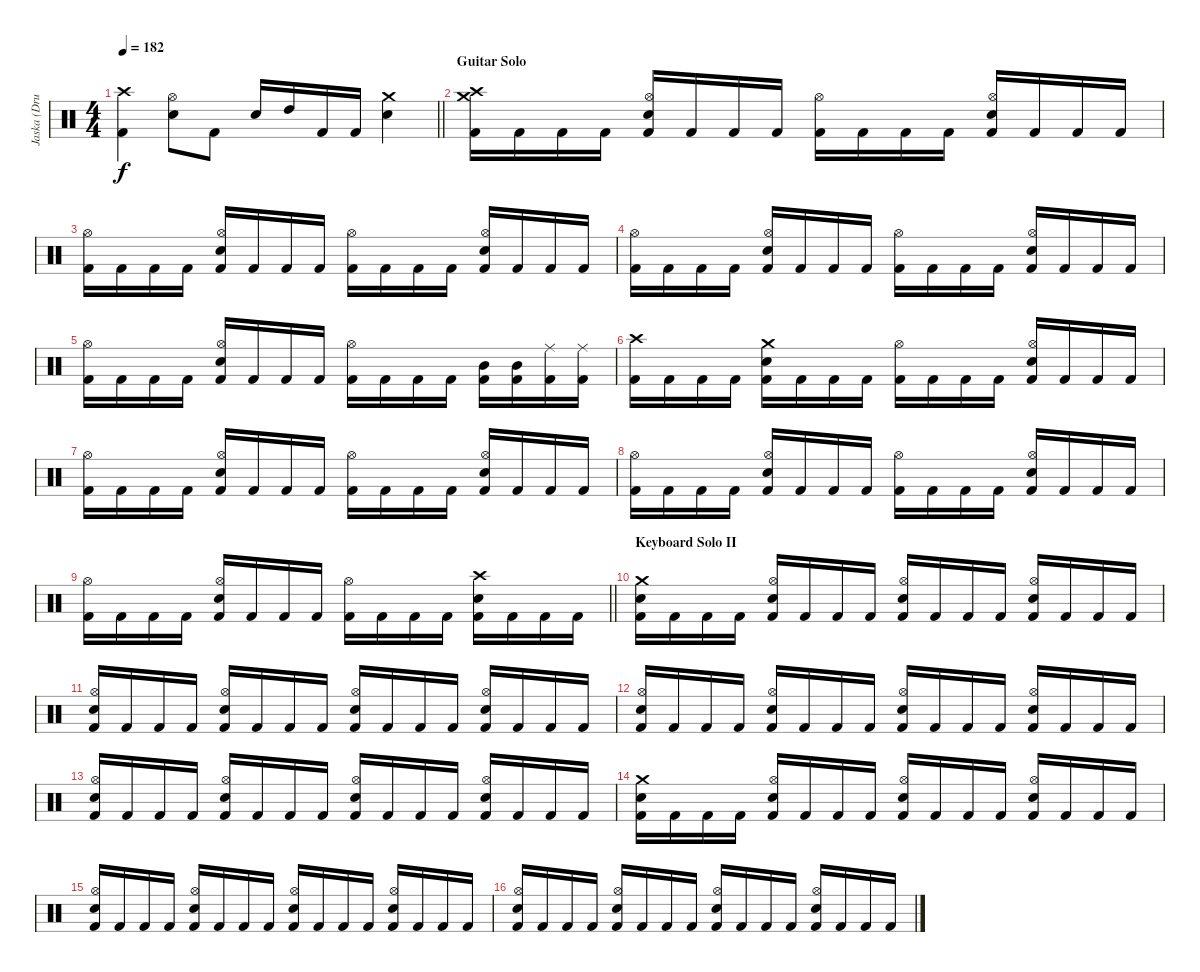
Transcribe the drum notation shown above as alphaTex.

\track ("Jaska (Drums)" "Jaska (Dru") {instrument percussion}
\staff {score}
\articulation defaults
\ts (4 4)
\tempo 182
\clef neutral
\barLineRight lightlight
\ks c
("Crash high (hit)" "Kick (hit) 2").4{dy f} ("Hi-Hat (open)" "Electric Snare (hit)").8 "Kick (hit) 2".8 "Electric Snare (hit)".16 "High Tom (hit)".16 "Kick (hit) 2".16 "Kick (hit) 2".16 ("Crash medium (hit)" "Electric Snare (hit)").4 |
\section ("" "Guitar Solo")
("Crash medium (hit)" "Crash high (hit)" "Kick (hit) 2").16 "Kick (hit) 2".16 "Kick (hit) 2".16 "Kick (hit) 2".16 ("Hi-Hat (open)" "Electric Snare (hit)" "Kick (hit) 2").16 "Kick (hit) 2".16 "Kick (hit) 2".16 "Kick (hit) 2".16 ("Hi-Hat (open)" "Kick (hit) 2").16 "Kick (hit) 2".16 "Kick (hit) 2".16 "Kick (hit) 2".16 ("Hi-Hat (open)" "Electric Snare (hit)" "Kick (hit) 2").16 "Kick (hit) 2".16 "Kick (hit) 2".16 "Kick (hit) 2".16 |
("Hi-Hat (open)" "Kick (hit) 2").16 "Kick (hit) 2".16 "Kick (hit) 2".16 "Kick (hit) 2".16 ("Hi-Hat (open)" "Electric Snare (hit)" "Kick (hit) 2").16 "Kick (hit) 2".16 "Kick (hit) 2".16 "Kick (hit) 2".16 ("Hi-Hat (open)" "Kick (hit) 2").16 "Kick (hit) 2".16 "Kick (hit) 2".16 "Kick (hit) 2".16 ("Hi-Hat (open)" "Electric Snare (hit)" "Kick (hit) 2").16 "Kick (hit) 2".16 "Kick (hit) 2".16 "Kick (hit) 2".16 |
("Hi-Hat (open)" "Kick (hit) 2").16 "Kick (hit) 2".16 "Kick (hit) 2".16 "Kick (hit) 2".16 ("Hi-Hat (open)" "Electric Snare (hit)" "Kick (hit) 2").16 "Kick (hit) 2".16 "Kick (hit) 2".16 "Kick (hit) 2".16 ("Hi-Hat (open)" "Kick (hit) 2").16 "Kick (hit) 2".16 "Kick (hit) 2".16 "Kick (hit) 2".16 ("Hi-Hat (open)" "Electric Snare (hit)" "Kick (hit) 2").16 "Kick (hit) 2".16 "Kick (hit) 2".16 "Kick (hit) 2".16 |
("Hi-Hat (open)" "Kick (hit) 2").16 "Kick (hit) 2".16 "Kick (hit) 2".16 "Kick (hit) 2".16 ("Hi-Hat (open)" "Electric Snare (hit)" "Kick (hit) 2").16 "Kick (hit) 2".16 "Kick (hit) 2".16 "Kick (hit) 2".16 ("Hi-Hat (open)" "Kick (hit) 2").16 "Kick (hit) 2".16 "Kick (hit) 2".16 "Kick (hit) 2".16 ("Mid Tom (hit)" "Kick (hit) 2").16 ("Mid Tom (hit)" "Kick (hit) 2").16 ("Ride (middle)" "Kick (hit) 2").16 ("Ride (middle)" "Kick (hit) 2").16 |
("Crash high (hit)" "Kick (hit) 2").16 "Kick (hit) 2".16 "Kick (hit) 2".16 "Kick (hit) 2".16 ("Crash medium (hit)" "Electric Snare (hit)" "Kick (hit) 2").16 "Kick (hit) 2".16 "Kick (hit) 2".16 "Kick (hit) 2".16 ("Hi-Hat (open)" "Kick (hit) 2").16 "Kick (hit) 2".16 "Kick (hit) 2".16 "Kick (hit) 2".16 ("Hi-Hat (open)" "Electric Snare (hit)" "Kick (hit) 2").16 "Kick (hit) 2".16 "Kick (hit) 2".16 "Kick (hit) 2".16 |
("Hi-Hat (open)" "Kick (hit) 2").16 "Kick (hit) 2".16 "Kick (hit) 2".16 "Kick (hit) 2".16 ("Hi-Hat (open)" "Electric Snare (hit)" "Kick (hit) 2").16 "Kick (hit) 2".16 "Kick (hit) 2".16 "Kick (hit) 2".16 ("Hi-Hat (open)" "Kick (hit) 2").16 "Kick (hit) 2".16 "Kick (hit) 2".16 "Kick (hit) 2".16 ("Hi-Hat (open)" "Electric Snare (hit)" "Kick (hit) 2").16 "Kick (hit) 2".16 "Kick (hit) 2".16 "Kick (hit) 2".16 |
("Hi-Hat (open)" "Kick (hit) 2").16 "Kick (hit) 2".16 "Kick (hit) 2".16 "Kick (hit) 2".16 ("Hi-Hat (open)" "Electric Snare (hit)" "Kick (hit) 2").16 "Kick (hit) 2".16 "Kick (hit) 2".16 "Kick (hit) 2".16 ("Hi-Hat (open)" "Kick (hit) 2").16 "Kick (hit) 2".16 "Kick (hit) 2".16 "Kick (hit) 2".16 ("Hi-Hat (open)" "Electric Snare (hit)" "Kick (hit) 2").16 "Kick (hit) 2".16 "Kick (hit) 2".16 "Kick (hit) 2".16 |
\barLineRight lightlight
("Hi-Hat (open)" "Kick (hit) 2").16 "Kick (hit) 2".16 "Kick (hit) 2".16 "Kick (hit) 2".16 ("Hi-Hat (open)" "Electric Snare (hit)" "Kick (hit) 2").16 "Kick (hit) 2".16 "Kick (hit) 2".16 "Kick (hit) 2".16 ("Hi-Hat (open)" "Kick (hit) 2").16 "Kick (hit) 2".16 "Kick (hit) 2".16 "Kick (hit) 2".16 ("Crash high (hit)" "Electric Snare (hit)" "Kick (hit) 2").16 "Kick (hit) 2".16 "Kick (hit) 2".16 "Kick (hit) 2".16 |
\section ("" "Keyboard Solo II")
("Crash medium (hit)" "Electric Snare (hit)" "Kick (hit) 2").16 "Kick (hit) 2".16 "Kick (hit) 2".16 "Kick (hit) 2".16 ("Hi-Hat (open)" "Electric Snare (hit)" "Kick (hit) 2").16 "Kick (hit) 2".16 "Kick (hit) 2".16 "Kick (hit) 2".16 ("Hi-Hat (open)" "Electric Snare (hit)" "Kick (hit) 2").16 "Kick (hit) 2".16 "Kick (hit) 2".16 "Kick (hit) 2".16 ("Hi-Hat (open)" "Electric Snare (hit)" "Kick (hit) 2").16 "Kick (hit) 2".16 "Kick (hit) 2".16 "Kick (hit) 2".16 |
("Hi-Hat (open)" "Electric Snare (hit)" "Kick (hit) 2").16 "Kick (hit) 2".16 "Kick (hit) 2".16 "Kick (hit) 2".16 ("Hi-Hat (open)" "Electric Snare (hit)" "Kick (hit) 2").16 "Kick (hit) 2".16 "Kick (hit) 2".16 "Kick (hit) 2".16 ("Hi-Hat (open)" "Electric Snare (hit)" "Kick (hit) 2").16 "Kick (hit) 2".16 "Kick (hit) 2".16 "Kick (hit) 2".16 ("Hi-Hat (open)" "Electric Snare (hit)" "Kick (hit) 2").16 "Kick (hit) 2".16 "Kick (hit) 2".16 "Kick (hit) 2".16 |
("Hi-Hat (open)" "Electric Snare (hit)" "Kick (hit) 2").16 "Kick (hit) 2".16 "Kick (hit) 2".16 "Kick (hit) 2".16 ("Hi-Hat (open)" "Electric Snare (hit)" "Kick (hit) 2").16 "Kick (hit) 2".16 "Kick (hit) 2".16 "Kick (hit) 2".16 ("Hi-Hat (open)" "Electric Snare (hit)" "Kick (hit) 2").16 "Kick (hit) 2".16 "Kick (hit) 2".16 "Kick (hit) 2".16 ("Hi-Hat (open)" "Electric Snare (hit)" "Kick (hit) 2").16 "Kick (hit) 2".16 "Kick (hit) 2".16 "Kick (hit) 2".16 |
("Hi-Hat (open)" "Electric Snare (hit)" "Kick (hit) 2").16 "Kick (hit) 2".16 "Kick (hit) 2".16 "Kick (hit) 2".16 ("Hi-Hat (open)" "Electric Snare (hit)" "Kick (hit) 2").16 "Kick (hit) 2".16 "Kick (hit) 2".16 "Kick (hit) 2".16 ("Hi-Hat (open)" "Electric Snare (hit)" "Kick (hit) 2").16 "Kick (hit) 2".16 "Kick (hit) 2".16 "Kick (hit) 2".16 ("Hi-Hat (open)" "Electric Snare (hit)" "Kick (hit) 2").16 "Kick (hit) 2".16 "Kick (hit) 2".16 "Kick (hit) 2".16 |
("Crash medium (hit)" "Electric Snare (hit)" "Kick (hit) 2").16 "Kick (hit) 2".16 "Kick (hit) 2".16 "Kick (hit) 2".16 ("Hi-Hat (open)" "Electric Snare (hit)" "Kick (hit) 2").16 "Kick (hit) 2".16 "Kick (hit) 2".16 "Kick (hit) 2".16 ("Hi-Hat (open)" "Electric Snare (hit)" "Kick (hit) 2").16 "Kick (hit) 2".16 "Kick (hit) 2".16 "Kick (hit) 2".16 ("Hi-Hat (open)" "Electric Snare (hit)" "Kick (hit) 2").16 "Kick (hit) 2".16 "Kick (hit) 2".16 "Kick (hit) 2".16 |
("Hi-Hat (open)" "Electric Snare (hit)" "Kick (hit) 2").16 "Kick (hit) 2".16 "Kick (hit) 2".16 "Kick (hit) 2".16 ("Hi-Hat (open)" "Electric Snare (hit)" "Kick (hit) 2").16 "Kick (hit) 2".16 "Kick (hit) 2".16 "Kick (hit) 2".16 ("Hi-Hat (open)" "Electric Snare (hit)" "Kick (hit) 2").16 "Kick (hit) 2".16 "Kick (hit) 2".16 "Kick (hit) 2".16 ("Hi-Hat (open)" "Electric Snare (hit)" "Kick (hit) 2").16 "Kick (hit) 2".16 "Kick (hit) 2".16 "Kick (hit) 2".16 |
("Hi-Hat (open)" "Electric Snare (hit)" "Kick (hit) 2").16 "Kick (hit) 2".16 "Kick (hit) 2".16 "Kick (hit) 2".16 ("Hi-Hat (open)" "Electric Snare (hit)" "Kick (hit) 2").16 "Kick (hit) 2".16 "Kick (hit) 2".16 "Kick (hit) 2".16 ("Hi-Hat (open)" "Electric Snare (hit)" "Kick (hit) 2").16 "Kick (hit) 2".16 "Kick (hit) 2".16 "Kick (hit) 2".16 ("Hi-Hat (open)" "Electric Snare (hit)" "Kick (hit) 2").16 "Kick (hit) 2".16 "Kick (hit) 2".16 "Kick (hit) 2".16
